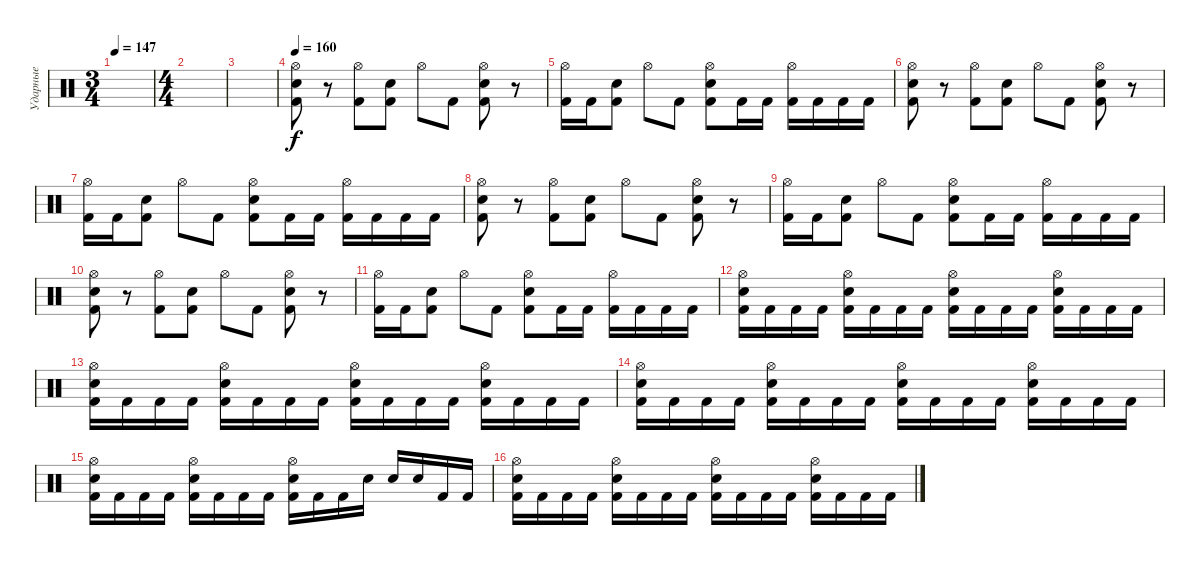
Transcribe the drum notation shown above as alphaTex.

\track ("Ударные" "Ударные") {instrument percussion}
\staff {score}
\articulation defaults
\ts (3 4)
\tempo 147
\clef neutral
\ks c
|
\ts (4 4)
|
|
\tempo 160
("Hi-Hat (open)" "Electric Snare (hit)" "Kick (hit) 2").8 r.8 ("Hi-Hat (open)" "Kick (hit) 2").8 ("Electric Snare (hit)" "Kick (hit) 2").8 "Hi-Hat (open)".8 "Kick (hit) 2".8 ("Hi-Hat (open)" "Electric Snare (hit)" "Kick (hit) 2").8 r.8 |
("Hi-Hat (open)" "Kick (hit) 2").16 "Kick (hit) 2".16 ("Electric Snare (hit)" "Kick (hit) 2").8 "Hi-Hat (open)".8 "Kick (hit) 2".8 ("Hi-Hat (open)" "Electric Snare (hit)" "Kick (hit) 2").8 "Kick (hit) 2".16 "Kick (hit) 2".16 ("Hi-Hat (open)" "Kick (hit) 2").16 "Kick (hit) 2".16 "Kick (hit) 2".16 "Kick (hit) 2".16 |
("Hi-Hat (open)" "Electric Snare (hit)" "Kick (hit) 2").8 r.8 ("Hi-Hat (open)" "Kick (hit) 2").8 ("Electric Snare (hit)" "Kick (hit) 2").8 "Hi-Hat (open)".8 "Kick (hit) 2".8 ("Hi-Hat (open)" "Electric Snare (hit)" "Kick (hit) 2").8 r.8 |
("Hi-Hat (open)" "Kick (hit) 2").16 "Kick (hit) 2".16 ("Electric Snare (hit)" "Kick (hit) 2").8 "Hi-Hat (open)".8 "Kick (hit) 2".8 ("Hi-Hat (open)" "Electric Snare (hit)" "Kick (hit) 2").8 "Kick (hit) 2".16 "Kick (hit) 2".16 ("Hi-Hat (open)" "Kick (hit) 2").16 "Kick (hit) 2".16 "Kick (hit) 2".16 "Kick (hit) 2".16 |
("Hi-Hat (open)" "Electric Snare (hit)" "Kick (hit) 2").8 r.8 ("Hi-Hat (open)" "Kick (hit) 2").8 ("Electric Snare (hit)" "Kick (hit) 2").8 "Hi-Hat (open)".8 "Kick (hit) 2".8 ("Hi-Hat (open)" "Electric Snare (hit)" "Kick (hit) 2").8 r.8 |
("Hi-Hat (open)" "Kick (hit) 2").16 "Kick (hit) 2".16 ("Electric Snare (hit)" "Kick (hit) 2").8 "Hi-Hat (open)".8 "Kick (hit) 2".8 ("Hi-Hat (open)" "Electric Snare (hit)" "Kick (hit) 2").8 "Kick (hit) 2".16 "Kick (hit) 2".16 ("Hi-Hat (open)" "Kick (hit) 2").16 "Kick (hit) 2".16 "Kick (hit) 2".16 "Kick (hit) 2".16 |
("Hi-Hat (open)" "Electric Snare (hit)" "Kick (hit) 2").8 r.8 ("Hi-Hat (open)" "Kick (hit) 2").8 ("Electric Snare (hit)" "Kick (hit) 2").8 "Hi-Hat (open)".8 "Kick (hit) 2".8 ("Hi-Hat (open)" "Electric Snare (hit)" "Kick (hit) 2").8 r.8 |
("Hi-Hat (open)" "Kick (hit) 2").16 "Kick (hit) 2".16 ("Electric Snare (hit)" "Kick (hit) 2").8 "Hi-Hat (open)".8 "Kick (hit) 2".8 ("Hi-Hat (open)" "Electric Snare (hit)" "Kick (hit) 2").8 "Kick (hit) 2".16 "Kick (hit) 2".16 ("Hi-Hat (open)" "Kick (hit) 2").16 "Kick (hit) 2".16 "Kick (hit) 2".16 "Kick (hit) 2".16 |
("Hi-Hat (open)" "Electric Snare (hit)" "Kick (hit) 2").16 "Kick (hit) 2".16 "Kick (hit) 2".16 "Kick (hit) 2".16 ("Hi-Hat (open)" "Electric Snare (hit)" "Kick (hit) 2").16 "Kick (hit) 2".16 "Kick (hit) 2".16 "Kick (hit) 2".16 ("Hi-Hat (open)" "Electric Snare (hit)" "Kick (hit) 2").16 "Kick (hit) 2".16 "Kick (hit) 2".16 "Kick (hit) 2".16 ("Hi-Hat (open)" "Electric Snare (hit)" "Kick (hit) 2").16 "Kick (hit) 2".16 "Kick (hit) 2".16 "Kick (hit) 2".16 |
("Hi-Hat (open)" "Electric Snare (hit)" "Kick (hit) 2").16 "Kick (hit) 2".16 "Kick (hit) 2".16 "Kick (hit) 2".16 ("Hi-Hat (open)" "Electric Snare (hit)" "Kick (hit) 2").16 "Kick (hit) 2".16 "Kick (hit) 2".16 "Kick (hit) 2".16 ("Hi-Hat (open)" "Electric Snare (hit)" "Kick (hit) 2").16 "Kick (hit) 2".16 "Kick (hit) 2".16 "Kick (hit) 2".16 ("Hi-Hat (open)" "Electric Snare (hit)" "Kick (hit) 2").16 "Kick (hit) 2".16 "Kick (hit) 2".16 "Kick (hit) 2".16 |
("Hi-Hat (open)" "Electric Snare (hit)" "Kick (hit) 2").16 "Kick (hit) 2".16 "Kick (hit) 2".16 "Kick (hit) 2".16 ("Hi-Hat (open)" "Electric Snare (hit)" "Kick (hit) 2").16 "Kick (hit) 2".16 "Kick (hit) 2".16 "Kick (hit) 2".16 ("Hi-Hat (open)" "Electric Snare (hit)" "Kick (hit) 2").16 "Kick (hit) 2".16 "Kick (hit) 2".16 "Kick (hit) 2".16 ("Hi-Hat (open)" "Electric Snare (hit)" "Kick (hit) 2").16 "Kick (hit) 2".16 "Kick (hit) 2".16 "Kick (hit) 2".16 |
("Hi-Hat (open)" "Electric Snare (hit)" "Kick (hit) 2").16 "Kick (hit) 2".16 "Kick (hit) 2".16 "Kick (hit) 2".16 ("Hi-Hat (open)" "Electric Snare (hit)" "Kick (hit) 2").16 "Kick (hit) 2".16 "Kick (hit) 2".16 "Kick (hit) 2".16 ("Hi-Hat (open)" "Electric Snare (hit)" "Kick (hit) 2").16 "Kick (hit) 2".16 "Kick (hit) 2".16 "Electric Snare (hit)".16 "Electric Snare (hit)".16 "Electric Snare (hit)".16 "Kick (hit) 2".16 "Kick (hit) 2".16 |
("Hi-Hat (open)" "Electric Snare (hit)" "Kick (hit) 2").16 "Kick (hit) 2".16 "Kick (hit) 2".16 "Kick (hit) 2".16 ("Hi-Hat (open)" "Electric Snare (hit)" "Kick (hit) 2").16 "Kick (hit) 2".16 "Kick (hit) 2".16 "Kick (hit) 2".16 ("Hi-Hat (open)" "Electric Snare (hit)" "Kick (hit) 2").16 "Kick (hit) 2".16 "Kick (hit) 2".16 "Kick (hit) 2".16 ("Hi-Hat (open)" "Electric Snare (hit)" "Kick (hit) 2").16 "Kick (hit) 2".16 "Kick (hit) 2".16 "Kick (hit) 2".16
